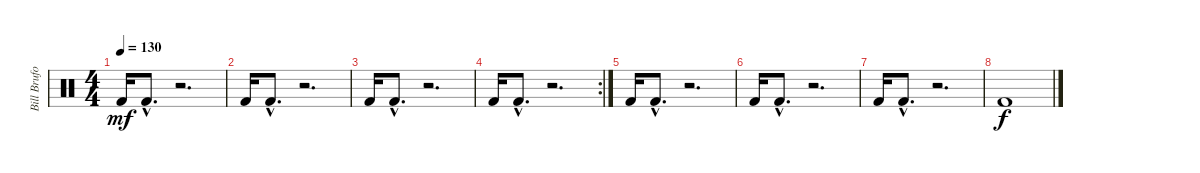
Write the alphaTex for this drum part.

\track ("Bill Bruford (drums)" "Bill Brufo") {instrument percussion}
\staff {score}
\articulation defaults
\ts (4 4)
\tempo 130
\clef neutral
\ks c "Kick (hit) 2".16{dy mf} "Kick (hit) 2"{hac}.8{d}
r.2{d} |
"Kick (hit) 2".16 "Kick (hit) 2"{hac}.8{d} r.2{d} |
"Kick (hit) 2".16 "Kick (hit) 2"{hac}.8{d} r.2{d} |
\rc 2 "Kick (hit) 2".16 "Kick (hit) 2"{hac}.8{d}
r.2{d} |
"Kick (hit) 2".16 "Kick (hit) 2"{hac}.8{d} r.2{d} |
"Kick (hit) 2".16 "Kick (hit) 2"{hac}.8{d} r.2{d} |
"Kick (hit) 2".16 "Kick (hit) 2"{hac}.8{d} r.2{d} |
"Kick (hit) 2".1{dy f}
